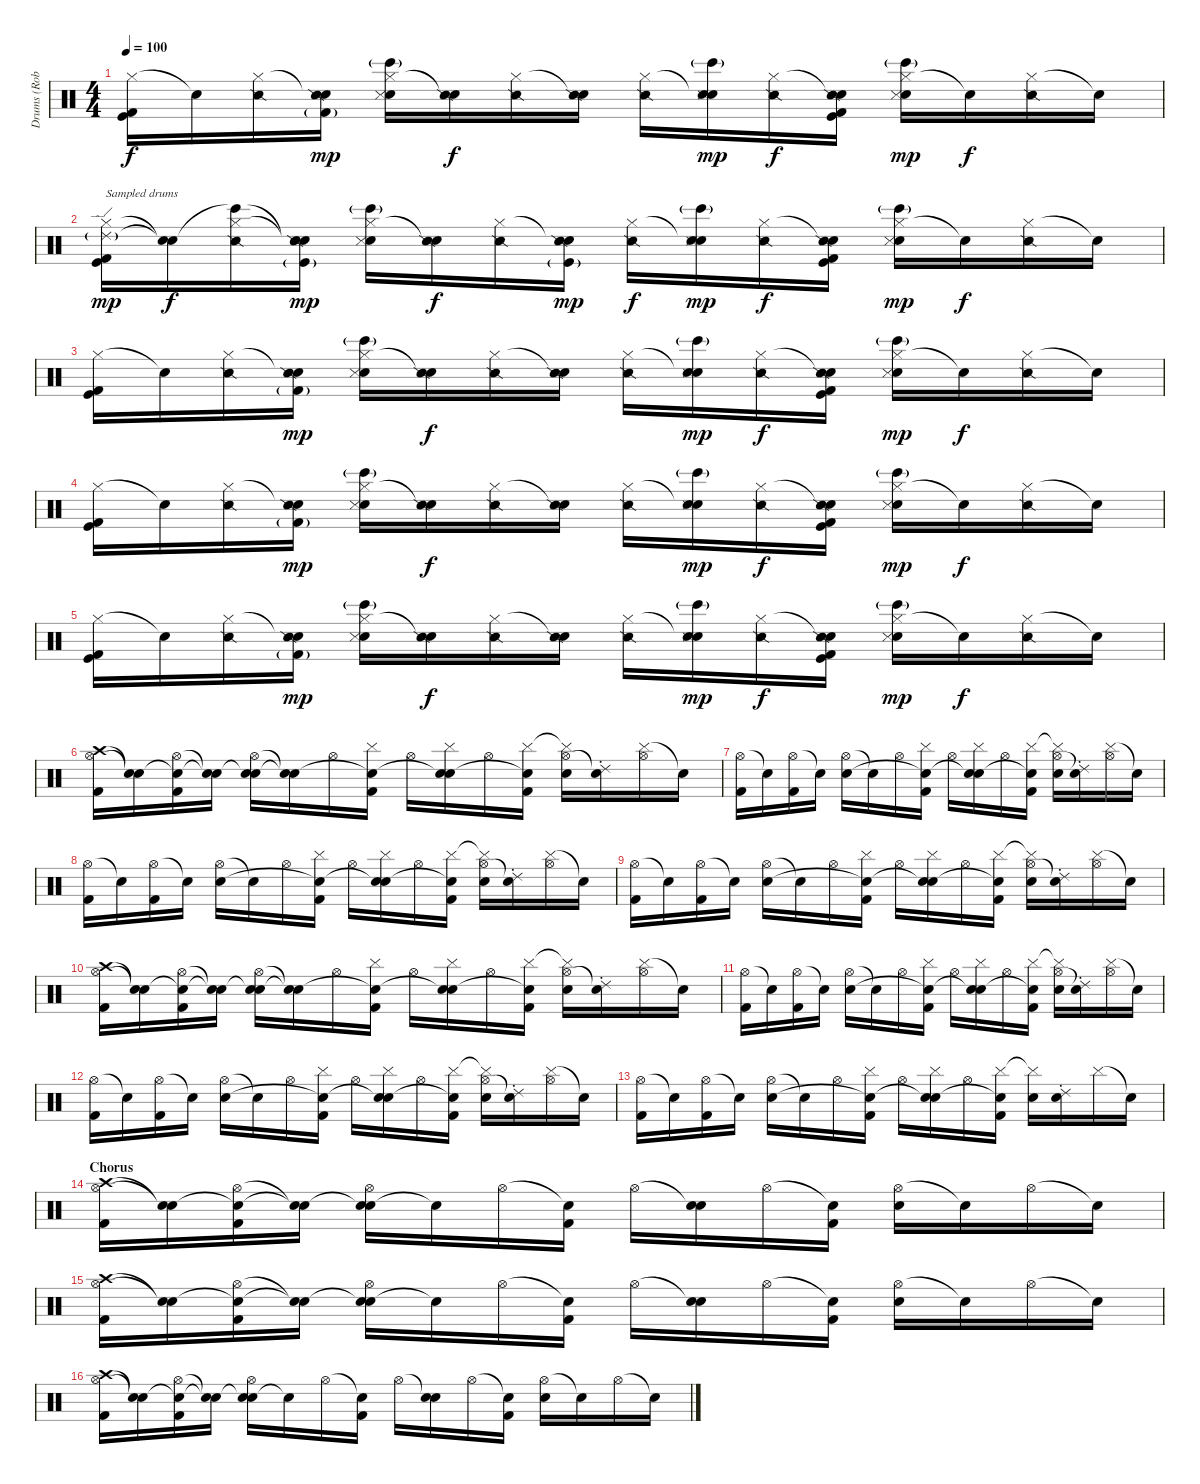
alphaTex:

\track ("Drums (Rob Bourdon)" "Drums (Rob") {instrument percussion}
\staff {score}
\articulation defaults
\ts (4 4)
\tempo 100
\clef neutral
\ks c
("Hi-Hat (closed)" "Kick (hit) 2" "Kick (hit)").16{dy f volume 10} "Snare (hit)"{t}.16 ("Hi-Hat (closed)" "Snare (side stick) 2").16 ("Snare (hit)"{t} "Snare (side stick) 2" "Kick (hit) 2"{g}).16{dy mp} ("Hi-Hat (closed)" "Bongo High (hit)"{g} "Electric Snare (hit)" "Snare (side stick) 3").16 ("Snare (hit)"{t} "Snare (side stick) 2").16{dy f} ("Hi-Hat (closed)" "Snare (side stick) 2").16 ("Snare (hit)"{t} "Snare (side stick) 2").16 ("Hi-Hat (closed)" "Snare (side stick) 2").16 ("Snare (hit)"{t} "Bongo High (hit)"{g} "Electric Snare (hit)" "Snare (side stick) 3").16{dy mp} ("Hi-Hat (closed)" "Snare (side stick) 2").16{dy f} ("Snare (hit)"{t} "Snare (side stick) 2" "Kick (hit) 2" "Kick (hit)").16 ("Hi-Hat (closed)" "Bongo High (hit)"{g} "Electric Snare (hit)" "Snare (side stick) 3").16{dy mp} "Snare (hit)"{t}.16{dy f} ("Hi-Hat (closed)" "Snare (side stick) 2").16 "Snare (hit)"{t}.16 |
("Ride (edge) 2"{g} "Hi-Hat (closed)" "Kick (hit) 2" "Kick (hit)").16{txt "Sampled drums" dy mp volume 10} ("Snare (hit)"{t} "Snare (hit)"{t}).16{dy f} ("Bongo High (hit)"{t} "Hi-Hat (closed)" "Snare (side stick) 2").16 ("Snare (hit)"{t} "Snare (hit)"{t} "Snare (side stick) 2" "Kick (hit)"{g}).16{dy mp} ("Hi-Hat (closed)" "Bongo High (hit)"{g} "Electric Snare (hit)" "Snare (side stick) 3").16 ("Snare (hit)"{t} "Snare (side stick) 2").16{dy f} ("Hi-Hat (closed)" "Snare (side stick) 2").16 ("Snare (hit)"{t} "Snare (side stick) 2" "Kick (hit)"{g}).16{dy mp} ("Hi-Hat (closed)" "Snare (side stick) 2").16{dy f} ("Snare (hit)"{t} "Bongo High (hit)"{g} "Electric Snare (hit)" "Snare (side stick) 3").16{dy mp} ("Hi-Hat (closed)" "Snare (side stick) 2").16{dy f} ("Snare (hit)"{t} "Snare (side stick) 2" "Kick (hit) 2" "Kick (hit)").16 ("Hi-Hat (closed)" "Bongo High (hit)"{g} "Electric Snare (hit)" "Snare (side stick) 3").16{dy mp} "Snare (hit)"{t}.16{dy f} ("Hi-Hat (closed)" "Snare (side stick) 2").16 "Snare (hit)"{t}.16 |
("Hi-Hat (closed)" "Kick (hit) 2" "Kick (hit)").16{volume 10} "Snare (hit)"{t}.16 ("Hi-Hat (closed)" "Snare (side stick) 2").16 ("Snare (hit)"{t} "Snare (side stick) 2" "Kick (hit) 2"{g}).16{dy mp} ("Hi-Hat (closed)" "Bongo High (hit)"{g} "Electric Snare (hit)" "Snare (side stick) 3").16 ("Snare (hit)"{t} "Snare (side stick) 2").16{dy f} ("Hi-Hat (closed)" "Snare (side stick) 2").16 ("Snare (hit)"{t} "Snare (side stick) 2").16 ("Hi-Hat (closed)" "Snare (side stick) 2").16 ("Snare (hit)"{t} "Bongo High (hit)"{g} "Electric Snare (hit)" "Snare (side stick) 3").16{dy mp} ("Hi-Hat (closed)" "Snare (side stick) 2").16{dy f} ("Snare (hit)"{t} "Snare (side stick) 2" "Kick (hit) 2" "Kick (hit)").16 ("Hi-Hat (closed)" "Bongo High (hit)"{g} "Electric Snare (hit)" "Snare (side stick) 3").16{dy mp} "Snare (hit)"{t}.16{dy f} ("Hi-Hat (closed)" "Snare (side stick) 2").16 "Snare (hit)"{t}.16 |
("Hi-Hat (closed)" "Kick (hit) 2" "Kick (hit)").16{volume 10} "Snare (hit)"{t}.16 ("Hi-Hat (closed)" "Snare (side stick) 2").16 ("Snare (hit)"{t} "Snare (side stick) 2" "Kick (hit) 2"{g}).16{dy mp} ("Hi-Hat (closed)" "Bongo High (hit)"{g} "Electric Snare (hit)" "Snare (side stick) 3").16 ("Snare (hit)"{t} "Snare (side stick) 2").16{dy f} ("Hi-Hat (closed)" "Snare (side stick) 2").16 ("Snare (hit)"{t} "Snare (side stick) 2").16 ("Hi-Hat (closed)" "Snare (side stick) 2").16 ("Snare (hit)"{t} "Bongo High (hit)"{g} "Electric Snare (hit)" "Snare (side stick) 3").16{dy mp} ("Hi-Hat (closed)" "Snare (side stick) 2").16{dy f} ("Snare (hit)"{t} "Snare (side stick) 2" "Kick (hit) 2" "Kick (hit)").16 ("Hi-Hat (closed)" "Bongo High (hit)"{g} "Electric Snare (hit)" "Snare (side stick) 3").16{dy mp} "Snare (hit)"{t}.16{dy f} ("Hi-Hat (closed)" "Snare (side stick) 2").16 "Snare (hit)"{t}.16 |
("Hi-Hat (closed)" "Kick (hit) 2" "Kick (hit)").16{volume 10} "Snare (hit)"{t}.16 ("Hi-Hat (closed)" "Snare (side stick) 2").16 ("Snare (hit)"{t} "Snare (side stick) 2" "Kick (hit) 2"{g}).16{dy mp} ("Hi-Hat (closed)" "Bongo High (hit)"{g} "Electric Snare (hit)" "Snare (side stick) 3").16 ("Snare (hit)"{t} "Snare (side stick) 2").16{dy f} ("Hi-Hat (closed)" "Snare (side stick) 2").16 ("Snare (hit)"{t} "Snare (side stick) 2").16 ("Hi-Hat (closed)" "Snare (side stick) 2").16 ("Snare (hit)"{t} "Bongo High (hit)"{g} "Electric Snare (hit)" "Snare (side stick) 3").16{dy mp} ("Hi-Hat (closed)" "Snare (side stick) 2").16{dy f} ("Snare (hit)"{t} "Snare (side stick) 2" "Kick (hit) 2" "Kick (hit)").16 ("Hi-Hat (closed)" "Bongo High (hit)"{g} "Electric Snare (hit)" "Snare (side stick) 3").16{dy mp} "Snare (hit)"{t}.16{dy f} ("Hi-Hat (closed)" "Snare (side stick) 2").16 "Snare (hit)"{t}.16 |
("Crash high (hit)" "Hi-Hat (open)" "Kick (hit) 2").16{volume 14} ("Snare (hit)"{t} "Snare (hit)"{t}).16 ("Snare (hit)"{t} "Hi-Hat (open)" "Kick (hit) 2").16 ("Snare (hit)"{t} "Snare (hit)"{t}).16 ("Snare (hit)"{t} "Hi-Hat (open)" "Electric Snare (hit)").16 ("Snare (hit)"{t} "Snare (hit)"{t}).16 "Hi-Hat (open)".16 ("Cymbal (hit)" "Snare (hit)"{t} "Kick (hit) 2").16 "Hi-Hat (open)".16 ("Cymbal (hit)" "Snare (hit)"{t} "Electric Snare (hit)").16 "Hi-Hat (open)".16 ("Cymbal (hit)" "Snare (hit)"{t} "Kick (hit) 2").16 ("Cymbal (hit)"{t} "Hi-Hat (open)" "Electric Snare (hit)").16 ("Ride (choke) 2" "Snare (hit)"{t}).16 ("Cymbal (hit)" "Hi-Hat (open)").16 "Snare (hit)"{t}.16 |
("Hi-Hat (open)" "Kick (hit) 2").16 "Snare (hit)"{t}.16 ("Hi-Hat (open)" "Kick (hit) 2").16 "Snare (hit)"{t}.16 ("Hi-Hat (open)" "Electric Snare (hit)").16 "Snare (hit)"{t}.16 "Hi-Hat (open)".16 ("Cymbal (hit)" "Snare (hit)"{t} "Kick (hit) 2").16 "Hi-Hat (open)".16 ("Cymbal (hit)" "Snare (hit)"{t} "Electric Snare (hit)").16 "Hi-Hat (open)".16 ("Cymbal (hit)" "Snare (hit)"{t} "Kick (hit) 2").16 ("Cymbal (hit)"{t} "Hi-Hat (open)" "Electric Snare (hit)").16 ("Ride (choke) 2" "Snare (hit)"{t}).16 ("Cymbal (hit)" "Hi-Hat (open)").16 "Snare (hit)"{t}.16 |
("Hi-Hat (open)" "Kick (hit) 2").16{volume 14} "Snare (hit)"{t}.16 ("Hi-Hat (open)" "Kick (hit) 2").16 "Snare (hit)"{t}.16 ("Hi-Hat (open)" "Electric Snare (hit)").16 "Snare (hit)"{t}.16 "Hi-Hat (open)".16 ("Cymbal (hit)" "Snare (hit)"{t} "Kick (hit) 2").16 "Hi-Hat (open)".16 ("Cymbal (hit)" "Snare (hit)"{t} "Electric Snare (hit)").16 "Hi-Hat (open)".16 ("Cymbal (hit)" "Snare (hit)"{t} "Kick (hit) 2").16 ("Cymbal (hit)"{t} "Hi-Hat (open)" "Electric Snare (hit)").16 ("Ride (choke) 2" "Snare (hit)"{t}).16 ("Cymbal (hit)" "Hi-Hat (open)").16 "Snare (hit)"{t}.16 |
("Hi-Hat (open)" "Kick (hit) 2").16 "Snare (hit)"{t}.16 ("Hi-Hat (open)" "Kick (hit) 2").16 "Snare (hit)"{t}.16 ("Hi-Hat (open)" "Electric Snare (hit)").16 "Snare (hit)"{t}.16 "Hi-Hat (open)".16 ("Cymbal (hit)" "Snare (hit)"{t} "Kick (hit) 2").16 "Hi-Hat (open)".16 ("Cymbal (hit)" "Snare (hit)"{t} "Electric Snare (hit)").16 "Hi-Hat (open)".16 ("Cymbal (hit)" "Snare (hit)"{t} "Kick (hit) 2").16 ("Cymbal (hit)"{t} "Hi-Hat (open)" "Electric Snare (hit)").16 ("Ride (choke) 2" "Snare (hit)"{t}).16 ("Cymbal (hit)" "Hi-Hat (open)").16 "Snare (hit)"{t}.16 |
("Crash high (hit)" "Hi-Hat (open)" "Kick (hit) 2").16{volume 14} ("Snare (hit)"{t} "Snare (hit)"{t}).16 ("Snare (hit)"{t} "Hi-Hat (open)" "Kick (hit) 2").16 ("Snare (hit)"{t} "Snare (hit)"{t}).16 ("Snare (hit)"{t} "Hi-Hat (open)" "Electric Snare (hit)").16 ("Snare (hit)"{t} "Snare (hit)"{t}).16 "Hi-Hat (open)".16 ("Cymbal (hit)" "Snare (hit)"{t} "Kick (hit) 2").16 "Hi-Hat (open)".16 ("Cymbal (hit)" "Snare (hit)"{t} "Electric Snare (hit)").16 "Hi-Hat (open)".16 ("Cymbal (hit)" "Snare (hit)"{t} "Kick (hit) 2").16 ("Cymbal (hit)"{t} "Hi-Hat (open)" "Electric Snare (hit)").16 ("Ride (choke) 2" "Snare (hit)"{t}).16 ("Cymbal (hit)" "Hi-Hat (open)").16 "Snare (hit)"{t}.16 |
("Hi-Hat (open)" "Kick (hit) 2").16 "Snare (hit)"{t}.16 ("Hi-Hat (open)" "Kick (hit) 2").16 "Snare (hit)"{t}.16 ("Hi-Hat (open)" "Electric Snare (hit)").16 "Snare (hit)"{t}.16 "Hi-Hat (open)".16 ("Cymbal (hit)" "Snare (hit)"{t} "Kick (hit) 2").16 "Hi-Hat (open)".16 ("Cymbal (hit)" "Snare (hit)"{t} "Electric Snare (hit)").16 "Hi-Hat (open)".16 ("Cymbal (hit)" "Snare (hit)"{t} "Kick (hit) 2").16 ("Cymbal (hit)"{t} "Hi-Hat (open)" "Electric Snare (hit)").16 ("Ride (choke) 2" "Snare (hit)"{t}).16 ("Cymbal (hit)" "Hi-Hat (open)").16 "Snare (hit)"{t}.16 |
("Hi-Hat (open)" "Kick (hit) 2").16{volume 14} "Snare (hit)"{t}.16 ("Hi-Hat (open)" "Kick (hit) 2").16 "Snare (hit)"{t}.16 ("Hi-Hat (open)" "Electric Snare (hit)").16 "Snare (hit)"{t}.16 "Hi-Hat (open)".16 ("Cymbal (hit)" "Snare (hit)"{t} "Kick (hit) 2").16 "Hi-Hat (open)".16 ("Cymbal (hit)" "Snare (hit)"{t} "Electric Snare (hit)").16 "Hi-Hat (open)".16 ("Cymbal (hit)" "Snare (hit)"{t} "Kick (hit) 2").16 ("Cymbal (hit)"{t} "Hi-Hat (open)" "Electric Snare (hit)").16 ("Ride (choke) 2" "Snare (hit)"{t}).16 ("Cymbal (hit)" "Hi-Hat (open)").16 "Snare (hit)"{t}.16 |
("Hi-Hat (open)" "Kick (hit) 2").16{volume 14} "Snare (hit)"{t}.16 ("Hi-Hat (open)" "Kick (hit) 2").16 "Snare (hit)"{t}.16 ("Hi-Hat (open)" "Electric Snare (hit)").16 "Snare (hit)"{t}.16 "Hi-Hat (open)".16 ("Cymbal (hit)" "Snare (hit)"{t} "Kick (hit) 2").16 "Hi-Hat (open)".16 ("Cymbal (hit)" "Snare (hit)"{t} "Electric Snare (hit)").16 "Hi-Hat (open)".16 ("Cymbal (hit)" "Snare (hit)"{t} "Kick (hit) 2").16 ("Cymbal (hit)"{t} "Electric Snare (hit)").16 ("Ride (choke) 2" "Electric Snare (hit)").16 "Cymbal (hit)".16 "Snare (hit)"{t}.16 |
\section ("" "Chorus")
("Crash high (hit)" "Hi-Hat (open)" "Kick (hit) 2").16 ("Snare (hit)"{t} "Snare (hit)"{t}).16 ("Snare (hit)"{t} "Hi-Hat (open)" "Kick (hit) 2").16 ("Snare (hit)"{t} "Snare (hit)"{t}).16 ("Snare (hit)"{t} "Hi-Hat (open)" "Electric Snare (hit)").16 "Snare (hit)"{t}.16 "Hi-Hat (open)".16 ("Snare (hit)"{t} "Kick (hit) 2").16 "Hi-Hat (open)".16 ("Snare (hit)"{t} "Electric Snare (hit)").16 "Hi-Hat (open)".16 ("Snare (hit)"{t} "Kick (hit) 2").16 ("Hi-Hat (open)" "Electric Snare (hit)").16 "Snare (hit)"{t}.16 "Hi-Hat (open)".16 "Snare (hit)"{t}.16 |
("Crash high (hit)" "Hi-Hat (open)" "Kick (hit) 2").16 ("Snare (hit)"{t} "Snare (hit)"{t}).16 ("Snare (hit)"{t} "Hi-Hat (open)" "Kick (hit) 2").16 ("Snare (hit)"{t} "Snare (hit)"{t}).16 ("Snare (hit)"{t} "Hi-Hat (open)" "Electric Snare (hit)").16 "Snare (hit)"{t}.16 "Hi-Hat (open)".16 ("Snare (hit)"{t} "Kick (hit) 2").16 "Hi-Hat (open)".16 ("Snare (hit)"{t} "Electric Snare (hit)").16 "Hi-Hat (open)".16 ("Snare (hit)"{t} "Kick (hit) 2").16 ("Hi-Hat (open)" "Electric Snare (hit)").16 "Snare (hit)"{t}.16 "Hi-Hat (open)".16 "Snare (hit)"{t}.16 |
("Crash high (hit)" "Hi-Hat (open)" "Kick (hit) 2").16 ("Snare (hit)"{t} "Snare (hit)"{t}).16 ("Snare (hit)"{t} "Hi-Hat (open)" "Kick (hit) 2").16 ("Snare (hit)"{t} "Snare (hit)"{t}).16 ("Snare (hit)"{t} "Hi-Hat (open)" "Electric Snare (hit)").16 "Snare (hit)"{t}.16 "Hi-Hat (open)".16 ("Snare (hit)"{t} "Kick (hit) 2").16 "Hi-Hat (open)".16 ("Snare (hit)"{t} "Electric Snare (hit)").16 "Hi-Hat (open)".16 ("Snare (hit)"{t} "Kick (hit) 2").16 ("Hi-Hat (open)" "Electric Snare (hit)").16 "Snare (hit)"{t}.16 "Hi-Hat (open)".16 "Snare (hit)"{t}.16
